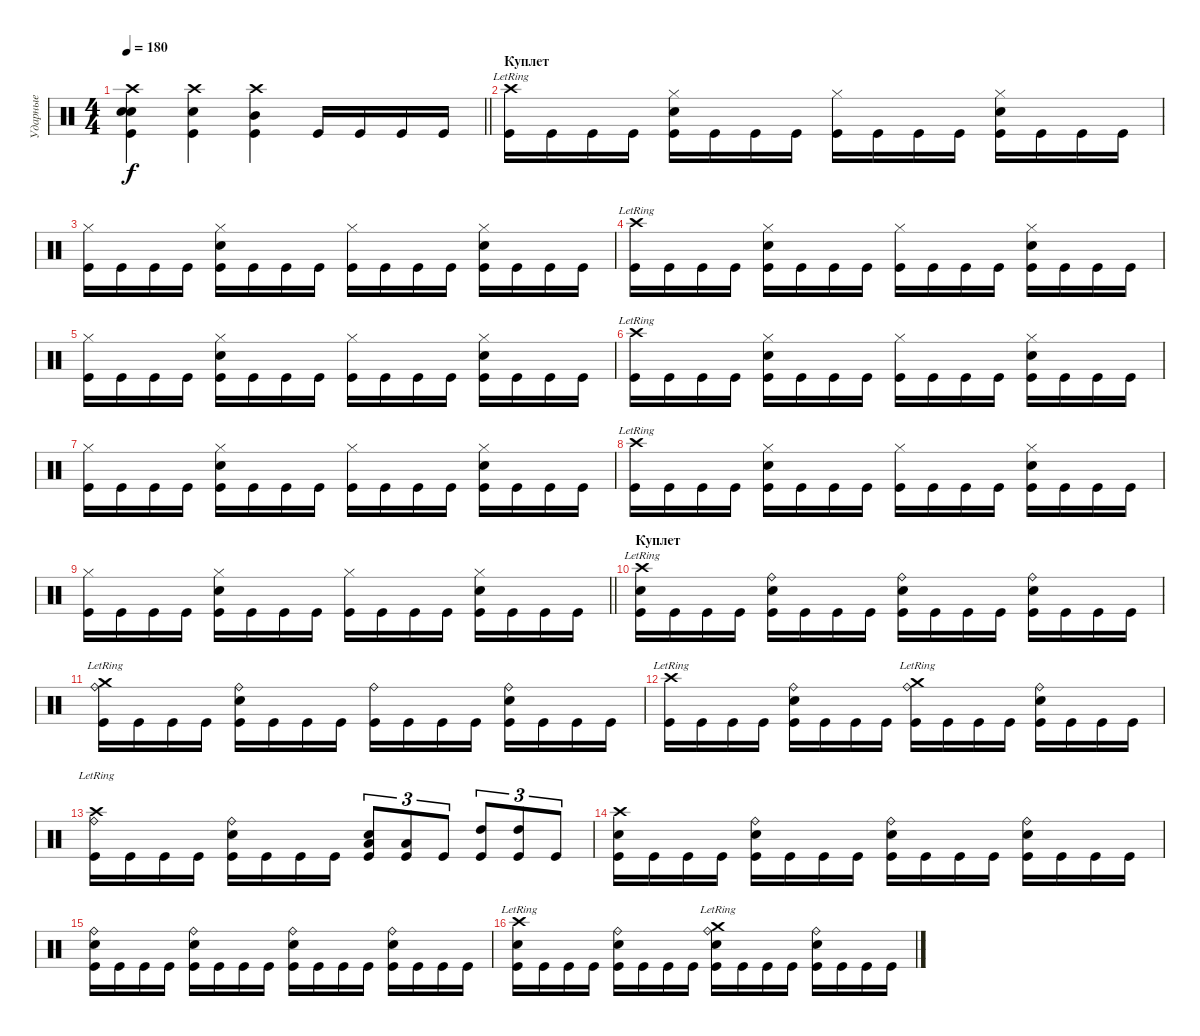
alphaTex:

\track ("Ударные" "Ударные") {instrument percussion}
\staff {score}
\articulation defaults
\ts (4 4)
\tempo 180
\clef neutral
\barLineRight lightlight
\ks c
("Crash high (hit)" "Electric Snare (hit)" "Electric Snare (hit)" "Kick (hit)").4{dy f} ("Crash high (hit)" "Electric Snare (hit)" "Kick (hit)").4 ("Crash high (hit)" "Mid Tom (hit)" "Kick (hit)").4 "Kick (hit)".16 "Kick (hit)".16 "Kick (hit)".16 "Kick (hit)".16 |
\section ("" "Куплет")
("Crash high (hit)"{lr} "Kick (hit)").16 "Kick (hit)".16 "Kick (hit)".16 "Kick (hit)".16 ("Hi-Hat (closed)" "Electric Snare (hit)" "Kick (hit)").16 "Kick (hit)".16 "Kick (hit)".16 "Kick (hit)".16 ("Hi-Hat (closed)" "Kick (hit)").16 "Kick (hit)".16 "Kick (hit)".16 "Kick (hit)".16 ("Hi-Hat (closed)" "Electric Snare (hit)" "Kick (hit)").16 "Kick (hit)".16 "Kick (hit)".16 "Kick (hit)".16 |
("Hi-Hat (closed)" "Kick (hit)").16 "Kick (hit)".16 "Kick (hit)".16 "Kick (hit)".16 ("Hi-Hat (closed)" "Electric Snare (hit)" "Kick (hit)").16 "Kick (hit)".16 "Kick (hit)".16 "Kick (hit)".16 ("Hi-Hat (closed)" "Kick (hit)").16 "Kick (hit)".16 "Kick (hit)".16 "Kick (hit)".16 ("Hi-Hat (closed)" "Electric Snare (hit)" "Kick (hit)").16 "Kick (hit)".16 "Kick (hit)".16 "Kick (hit)".16 |
("Crash high (hit)"{lr} "Kick (hit)").16 "Kick (hit)".16 "Kick (hit)".16 "Kick (hit)".16 ("Hi-Hat (closed)" "Electric Snare (hit)" "Kick (hit)").16 "Kick (hit)".16 "Kick (hit)".16 "Kick (hit)".16 ("Hi-Hat (closed)" "Kick (hit)").16 "Kick (hit)".16 "Kick (hit)".16 "Kick (hit)".16 ("Hi-Hat (closed)" "Electric Snare (hit)" "Kick (hit)").16 "Kick (hit)".16 "Kick (hit)".16 "Kick (hit)".16 |
("Hi-Hat (closed)" "Kick (hit)").16 "Kick (hit)".16 "Kick (hit)".16 "Kick (hit)".16 ("Hi-Hat (closed)" "Electric Snare (hit)" "Kick (hit)").16 "Kick (hit)".16 "Kick (hit)".16 "Kick (hit)".16 ("Hi-Hat (closed)" "Kick (hit)").16 "Kick (hit)".16 "Kick (hit)".16 "Kick (hit)".16 ("Hi-Hat (closed)" "Electric Snare (hit)" "Kick (hit)").16 "Kick (hit)".16 "Kick (hit)".16 "Kick (hit)".16 |
("Crash high (hit)"{lr} "Kick (hit)").16 "Kick (hit)".16 "Kick (hit)".16 "Kick (hit)".16 ("Hi-Hat (closed)" "Electric Snare (hit)" "Kick (hit)").16 "Kick (hit)".16 "Kick (hit)".16 "Kick (hit)".16 ("Hi-Hat (closed)" "Kick (hit)").16 "Kick (hit)".16 "Kick (hit)".16 "Kick (hit)".16 ("Hi-Hat (closed)" "Electric Snare (hit)" "Kick (hit)").16 "Kick (hit)".16 "Kick (hit)".16 "Kick (hit)".16 |
("Hi-Hat (closed)" "Kick (hit)").16 "Kick (hit)".16 "Kick (hit)".16 "Kick (hit)".16 ("Hi-Hat (closed)" "Electric Snare (hit)" "Kick (hit)").16 "Kick (hit)".16 "Kick (hit)".16 "Kick (hit)".16 ("Hi-Hat (closed)" "Kick (hit)").16 "Kick (hit)".16 "Kick (hit)".16 "Kick (hit)".16 ("Hi-Hat (closed)" "Electric Snare (hit)" "Kick (hit)").16 "Kick (hit)".16 "Kick (hit)".16 "Kick (hit)".16 |
("Crash high (hit)"{lr} "Kick (hit)").16 "Kick (hit)".16 "Kick (hit)".16 "Kick (hit)".16 ("Hi-Hat (closed)" "Electric Snare (hit)" "Kick (hit)").16 "Kick (hit)".16 "Kick (hit)".16 "Kick (hit)".16 ("Hi-Hat (closed)" "Kick (hit)").16 "Kick (hit)".16 "Kick (hit)".16 "Kick (hit)".16 ("Hi-Hat (closed)" "Electric Snare (hit)" "Kick (hit)").16 "Kick (hit)".16 "Kick (hit)".16 "Kick (hit)".16 |
\barLineRight lightlight
("Hi-Hat (closed)" "Kick (hit)").16 "Kick (hit)".16 "Kick (hit)".16 "Kick (hit)".16 ("Hi-Hat (closed)" "Electric Snare (hit)" "Kick (hit)").16 "Kick (hit)".16 "Kick (hit)".16 "Kick (hit)".16 ("Hi-Hat (closed)" "Kick (hit)").16 "Kick (hit)".16 "Kick (hit)".16 "Kick (hit)".16 ("Hi-Hat (closed)" "Electric Snare (hit)" "Kick (hit)").16 "Kick (hit)".16 "Kick (hit)".16 "Kick (hit)".16 |
\section ("" "Куплет")
("Crash high (hit)"{lr} "Electric Snare (hit)" "Kick (hit)").16 "Kick (hit)".16 "Kick (hit)".16 "Kick (hit)".16 ("Ride (bell)" "Electric Snare (hit)" "Kick (hit)").16 "Kick (hit)".16 "Kick (hit)".16 "Kick (hit)".16 ("Ride (bell)" "Electric Snare (hit)" "Kick (hit)").16 "Kick (hit)".16 "Kick (hit)".16 "Kick (hit)".16 ("Ride (bell)" "Electric Snare (hit)" "Kick (hit)").16 "Kick (hit)".16 "Kick (hit)".16 "Kick (hit)".16 |
("Crash medium (hit)"{lr} "Ride (bell)" "Kick (hit)").16 "Kick (hit)".16 "Kick (hit)".16 "Kick (hit)".16 ("Ride (bell)" "Electric Snare (hit)" "Kick (hit)").16 "Kick (hit)".16 "Kick (hit)".16 "Kick (hit)".16 ("Ride (bell)" "Kick (hit)").16 "Kick (hit)".16 "Kick (hit)".16 "Kick (hit)".16 ("Ride (bell)" "Electric Snare (hit)" "Kick (hit)").16 "Kick (hit)".16 "Kick (hit)".16 "Kick (hit)".16 |
("Crash high (hit)"{lr} "Kick (hit)").16 "Kick (hit)".16 "Kick (hit)".16 "Kick (hit)".16 ("Ride (bell)" "Electric Snare (hit)" "Kick (hit)").16 "Kick (hit)".16 "Kick (hit)".16 "Kick (hit)".16 ("Crash medium (hit)"{lr} "Ride (bell)" "Kick (hit)").16 "Kick (hit)".16 "Kick (hit)".16 "Kick (hit)".16 ("Ride (bell)" "Electric Snare (hit)" "Kick (hit)").16 "Kick (hit)".16 "Kick (hit)".16 "Kick (hit)".16 |
("Crash high (hit)"{lr} "Ride (bell)" "Kick (hit)").16 "Kick (hit)".16 "Kick (hit)".16 "Kick (hit)".16 ("Ride (bell)" "Electric Snare (hit)" "Kick (hit)").16 "Kick (hit)".16 "Kick (hit)".16 "Kick (hit)".16 ("Low Tom (hit)" "Electric Snare (hit)" "Kick (hit)").8{tu (3 2)} ("Low Tom (hit)" "Kick (hit)").8{tu (3 2)} "Kick (hit)".8{tu (3 2)} ("High Tom (hit)" "Kick (hit)").8{tu (3 2)} ("High Tom (hit)" "Kick (hit)").8{tu (3 2)} "Kick (hit)".8{tu (3 2)} |
("Crash high (hit)" "Electric Snare (hit)" "Kick (hit)").16 "Kick (hit)".16 "Kick (hit)".16 "Kick (hit)".16 ("Ride (bell)" "Electric Snare (hit)" "Kick (hit)").16 "Kick (hit)".16 "Kick (hit)".16 "Kick (hit)".16 ("Ride (bell)" "Electric Snare (hit)" "Kick (hit)").16 "Kick (hit)".16 "Kick (hit)".16 "Kick (hit)".16 ("Ride (bell)" "Electric Snare (hit)" "Kick (hit)").16 "Kick (hit)".16 "Kick (hit)".16 "Kick (hit)".16 |
("Ride (bell)" "Electric Snare (hit)" "Kick (hit)").16 "Kick (hit)".16 "Kick (hit)".16 "Kick (hit)".16 ("Ride (bell)" "Electric Snare (hit)" "Kick (hit)").16 "Kick (hit)".16 "Kick (hit)".16 "Kick (hit)".16 ("Ride (bell)" "Electric Snare (hit)" "Kick (hit)").16 "Kick (hit)".16 "Kick (hit)".16 "Kick (hit)".16 ("Ride (bell)" "Electric Snare (hit)" "Kick (hit)").16 "Kick (hit)".16 "Kick (hit)".16 "Kick (hit)".16 |
("Crash high (hit)"{lr} "Electric Snare (hit)" "Kick (hit)").16 "Kick (hit)".16 "Kick (hit)".16 "Kick (hit)".16 ("Ride (bell)" "Electric Snare (hit)" "Kick (hit)").16 "Kick (hit)".16 "Kick (hit)".16 "Kick (hit)".16 ("Crash medium (hit)"{lr} "Ride (bell)" "Electric Snare (hit)" "Kick (hit)").16 "Kick (hit)".16 "Kick (hit)".16 "Kick (hit)".16 ("Ride (bell)" "Electric Snare (hit)" "Kick (hit)").16 "Kick (hit)".16 "Kick (hit)".16 "Kick (hit)".16
